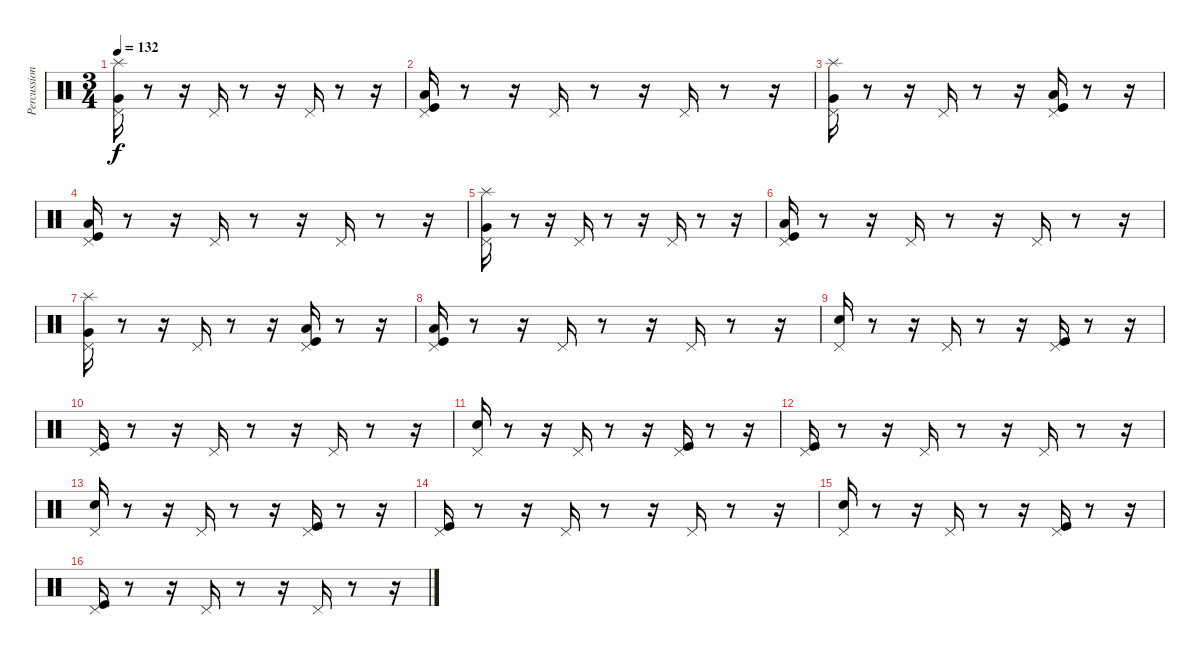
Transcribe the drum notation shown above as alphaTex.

\track ("Percussion" "Percussion") {instrument percussion}
\staff {score}
\articulation defaults
\ts (3 4)
\tempo 132
\clef neutral
\ks c
("Pedal Hi-Hat (hit)" "Very Low Tom (hit)" "Splash (hit)").16{dy f} r.8 r.16 "Pedal Hi-Hat (hit)".16 r.8 r.16 "Pedal Hi-Hat (hit)".16 r.8 r.16 |
("Low Floor Tom (hit)" "Pedal Hi-Hat (hit)" "Kick (hit)").16 r.8 r.16 "Pedal Hi-Hat (hit)".16 r.8 r.16 "Pedal Hi-Hat (hit)".16 r.8 r.16 |
("Pedal Hi-Hat (hit)" "Very Low Tom (hit)" "Splash (hit)").16 r.8 r.16 "Pedal Hi-Hat (hit)".16 r.8 r.16 ("Pedal Hi-Hat (hit)" "Low Floor Tom (hit)" "Kick (hit)").16 r.8 r.16 |
("Low Floor Tom (hit)" "Pedal Hi-Hat (hit)" "Kick (hit)").16 r.8 r.16 "Pedal Hi-Hat (hit)".16 r.8 r.16 "Pedal Hi-Hat (hit)".16 r.8 r.16 |
("Pedal Hi-Hat (hit)" "Very Low Tom (hit)" "Splash (hit)").16 r.8 r.16 "Pedal Hi-Hat (hit)".16 r.8 r.16 "Pedal Hi-Hat (hit)".16 r.8 r.16 |
("Low Floor Tom (hit)" "Pedal Hi-Hat (hit)" "Kick (hit)").16 r.8 r.16 "Pedal Hi-Hat (hit)".16 r.8 r.16 "Pedal Hi-Hat (hit)".16 r.8 r.16 |
("Pedal Hi-Hat (hit)" "Very Low Tom (hit)" "Splash (hit)").16 r.8 r.16 "Pedal Hi-Hat (hit)".16 r.8 r.16 ("Pedal Hi-Hat (hit)" "Low Floor Tom (hit)" "Kick (hit)").16 r.8 r.16 |
("Pedal Hi-Hat (hit)" "Low Floor Tom (hit)" "Kick (hit)").16 r.8 r.16 "Pedal Hi-Hat (hit)".16 r.8 r.16 "Pedal Hi-Hat (hit)".16 r.8 r.16 |
("Pedal Hi-Hat (hit)" "Snare (hit) 2").16 r.8 r.16 "Pedal Hi-Hat (hit)".16 r.8 r.16 ("Pedal Hi-Hat (hit)" "Kick (hit)").16 r.8 r.16 |
("Pedal Hi-Hat (hit)" "Kick (hit)").16 r.8 r.16 "Pedal Hi-Hat (hit)".16 r.8 r.16 "Pedal Hi-Hat (hit)".16 r.8 r.16 |
("Pedal Hi-Hat (hit)" "Snare (hit) 2").16 r.8 r.16 "Pedal Hi-Hat (hit)".16 r.8 r.16 ("Pedal Hi-Hat (hit)" "Kick (hit)").16 r.8 r.16 |
("Pedal Hi-Hat (hit)" "Kick (hit)").16 r.8 r.16 "Pedal Hi-Hat (hit)".16 r.8 r.16 "Pedal Hi-Hat (hit)".16 r.8 r.16 |
("Pedal Hi-Hat (hit)" "Snare (hit) 2").16 r.8 r.16 "Pedal Hi-Hat (hit)".16 r.8 r.16 ("Pedal Hi-Hat (hit)" "Kick (hit)").16 r.8 r.16 |
("Pedal Hi-Hat (hit)" "Kick (hit)").16 r.8 r.16 "Pedal Hi-Hat (hit)".16 r.8 r.16 "Pedal Hi-Hat (hit)".16 r.8 r.16 |
("Pedal Hi-Hat (hit)" "Snare (hit) 2").16 r.8 r.16 "Pedal Hi-Hat (hit)".16 r.8 r.16 ("Pedal Hi-Hat (hit)" "Kick (hit)").16 r.8 r.16 |
("Pedal Hi-Hat (hit)" "Kick (hit)").16 r.8 r.16 "Pedal Hi-Hat (hit)".16 r.8 r.16 "Pedal Hi-Hat (hit)".16 r.8 r.16
